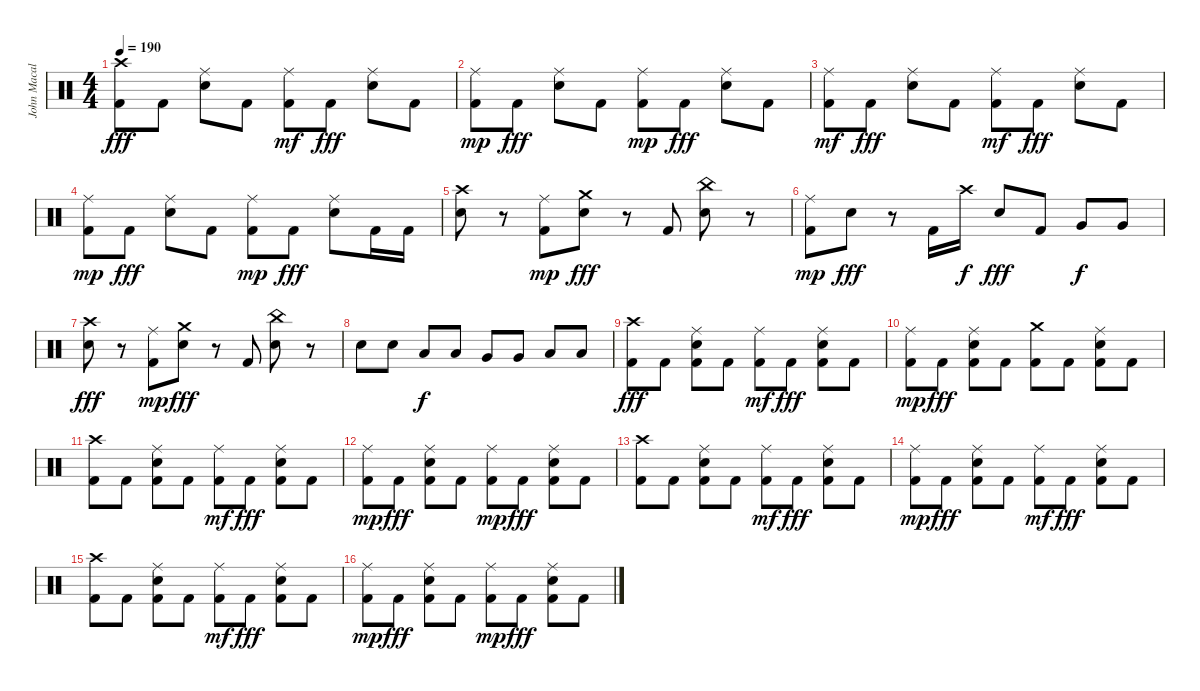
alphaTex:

\track ("John Macaluso drums" "John Macal") {instrument percussion}
\staff {score}
\articulation defaults
\ts (4 4)
\tempo 190
\clef neutral
\ks c
("Kick (hit) 2" "Crash high (hit)").8{dy fff} "Kick (hit) 2".8 ("Snare (hit) 2" "Ride (middle)").8 "Kick (hit) 2".8 ("Kick (hit) 2" "Ride (middle)").8{dy mf} "Kick (hit) 2".8{dy fff} ("Snare (hit) 2" "Ride (middle)").8 "Kick (hit) 2".8 |
("Kick (hit) 2" "Ride (middle)").8{dy mp} "Kick (hit) 2".8{dy fff} ("Snare (hit) 2" "Ride (middle)").8 "Kick (hit) 2".8 ("Kick (hit) 2" "Ride (middle)").8{dy mp} "Kick (hit) 2".8{dy fff} ("Snare (hit) 2" "Ride (middle)").8 "Kick (hit) 2".8 |
("Kick (hit) 2" "Ride (middle)").8{dy mf} "Kick (hit) 2".8{dy fff} ("Snare (hit) 2" "Ride (middle)").8 "Kick (hit) 2".8 ("Kick (hit) 2" "Ride (middle)").8{dy mf} "Kick (hit) 2".8{dy fff} ("Snare (hit) 2" "Ride (middle)").8 "Kick (hit) 2".8 |
("Kick (hit) 2" "Ride (middle)").8{dy mp} "Kick (hit) 2".8{dy fff} ("Snare (hit) 2" "Ride (middle)").8 "Kick (hit) 2".8 ("Kick (hit) 2" "Ride (middle)").8{dy mp} "Kick (hit) 2".8{dy fff} ("Snare (hit) 2" "Ride (middle)").8 "Kick (hit) 2".16 "Kick (hit) 2".16 |
("Snare (hit) 2" "Crash high (hit)").8 r.8 ("Kick (hit) 2" "Ride (middle)").8{dy mp} ("Snare (hit) 2" "Crash medium (hit)").8{dy fff} r.8 "Kick (hit) 2".8 ("Snare (hit) 2" "China (hit)").8 r.8 |
("Kick (hit) 2" "Ride (middle)").8{dy mp} "Snare (hit) 2".8{dy fff} r.8 "Kick (hit) 2".16 "Crash high (hit)".16{dy f} "Snare (hit) 2".8{dy fff} "Kick (hit) 2".8 "Very Low Tom (hit)".8{dy f} "Very Low Tom (hit)".8 |
("Snare (hit) 2" "Crash high (hit)").8{dy fff} r.8 ("Kick (hit) 2" "Ride (middle)").8{dy mp} ("Snare (hit) 2" "Crash medium (hit)").8{dy fff} r.8 "Kick (hit) 2".8 ("Snare (hit) 2" "China (hit)").8 r.8 |
"Snare (hit) 2".8 "Snare (hit) 2".8 "Low Tom (hit)".8{dy f} "Low Tom (hit)".8 "Very Low Tom (hit)".8 "Very Low Tom (hit)".8 "Low Floor Tom (hit)".8 "Low Floor Tom (hit)".8 |
("Kick (hit) 2" "Crash high (hit)").8{dy fff} "Kick (hit) 2".8 ("Kick (hit) 2" "Snare (hit) 2" "Ride (middle)").8 "Kick (hit) 2".8 ("Kick (hit) 2" "Ride (middle)").8{dy mf} "Kick (hit) 2".8{dy fff} ("Kick (hit) 2" "Snare (hit) 2" "Ride (middle)").8 "Kick (hit) 2".8 |
("Kick (hit) 2" "Ride (middle)").8{dy mp} "Kick (hit) 2".8{dy fff} ("Kick (hit) 2" "Snare (hit) 2" "Ride (middle)").8 "Kick (hit) 2".8 ("Kick (hit) 2" "Crash medium (hit)").8 "Kick (hit) 2".8 ("Kick (hit) 2" "Snare (hit) 2" "Ride (middle)").8 "Kick (hit) 2".8 |
("Kick (hit) 2" "Crash high (hit)").8 "Kick (hit) 2".8 ("Kick (hit) 2" "Snare (hit) 2" "Ride (middle)").8 "Kick (hit) 2".8 ("Kick (hit) 2" "Ride (middle)").8{dy mf} "Kick (hit) 2".8{dy fff} ("Kick (hit) 2" "Snare (hit) 2" "Ride (middle)").8 "Kick (hit) 2".8 |
("Kick (hit) 2" "Ride (middle)").8{dy mp} "Kick (hit) 2".8{dy fff} ("Kick (hit) 2" "Snare (hit) 2" "Ride (middle)").8 "Kick (hit) 2".8 ("Kick (hit) 2" "Ride (middle)").8{dy mp} "Kick (hit) 2".8{dy fff} ("Kick (hit) 2" "Snare (hit) 2" "Ride (middle)").8 "Kick (hit) 2".8 |
("Kick (hit) 2" "Crash high (hit)").8 "Kick (hit) 2".8 ("Kick (hit) 2" "Snare (hit) 2" "Ride (middle)").8 "Kick (hit) 2".8 ("Kick (hit) 2" "Ride (middle)").8{dy mf} "Kick (hit) 2".8{dy fff} ("Kick (hit) 2" "Snare (hit) 2" "Ride (middle)").8 "Kick (hit) 2".8 |
("Kick (hit) 2" "Ride (middle)").8{dy mp} "Kick (hit) 2".8{dy fff} ("Kick (hit) 2" "Snare (hit) 2" "Ride (middle)").8 "Kick (hit) 2".8 ("Kick (hit) 2" "Ride (middle)").8{dy mf} "Kick (hit) 2".8{dy fff} ("Kick (hit) 2" "Snare (hit) 2" "Ride (middle)").8 "Kick (hit) 2".8 |
("Kick (hit) 2" "Crash high (hit)").8 "Kick (hit) 2".8 ("Kick (hit) 2" "Snare (hit) 2" "Ride (middle)").8 "Kick (hit) 2".8 ("Kick (hit) 2" "Ride (middle)").8{dy mf} "Kick (hit) 2".8{dy fff} ("Kick (hit) 2" "Snare (hit) 2" "Ride (middle)").8 "Kick (hit) 2".8 |
("Kick (hit) 2" "Ride (middle)").8{dy mp} "Kick (hit) 2".8{dy fff} ("Kick (hit) 2" "Snare (hit) 2" "Ride (middle)").8 "Kick (hit) 2".8 ("Kick (hit) 2" "Ride (middle)").8{dy mp} "Kick (hit) 2".8{dy fff} ("Kick (hit) 2" "Snare (hit) 2" "Ride (middle)").8 "Kick (hit) 2".8
